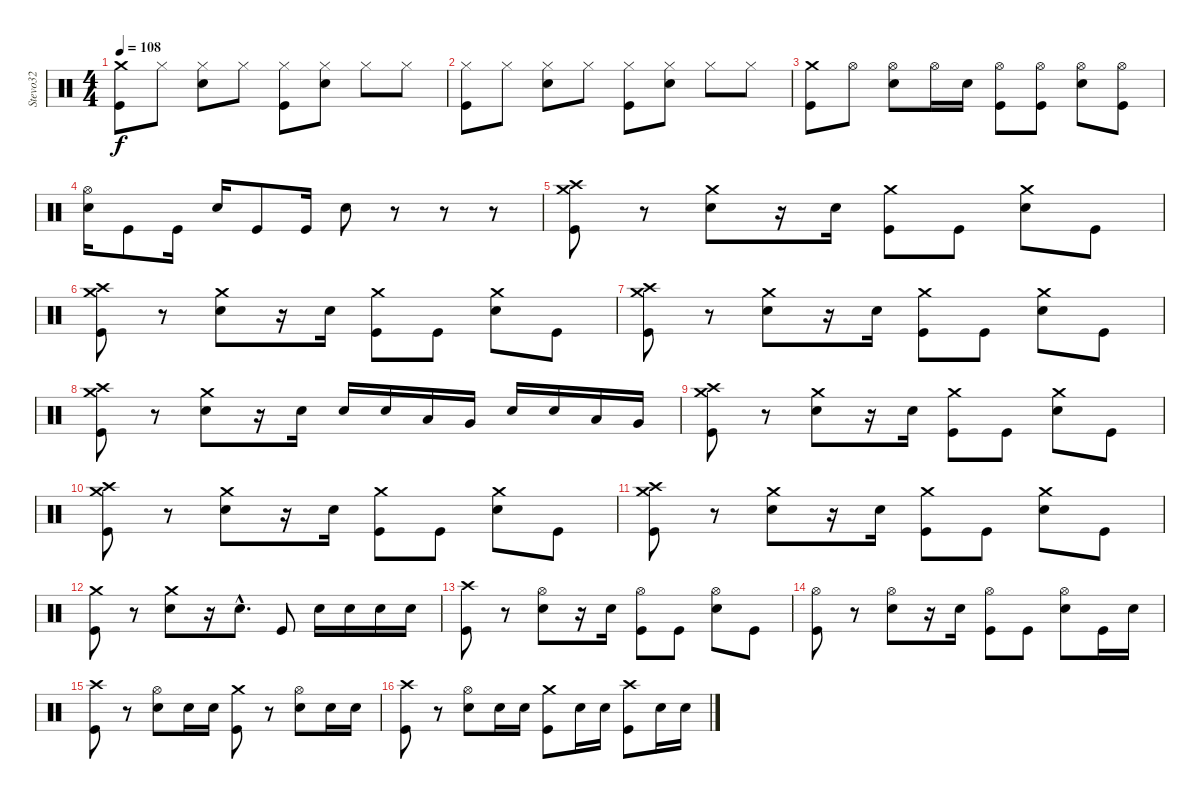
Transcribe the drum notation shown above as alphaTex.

\track ("Stevo32" "Stevo32") {instrument percussion}
\staff {score}
\articulation defaults
\ts (4 4)
\tempo 108
\clef neutral
\ks c
("Crash medium (hit)" "Kick (hit)").8{dy f} "Hi-Hat (closed)".8 ("Hi-Hat (closed)" "Electric Snare (hit)").8 "Hi-Hat (closed)".8 ("Hi-Hat (closed)" "Kick (hit)").8 ("Hi-Hat (closed)" "Electric Snare (hit)").8 "Hi-Hat (closed)".8 "Hi-Hat (closed)".8 |
("Hi-Hat (closed)" "Kick (hit)").8 "Hi-Hat (closed)".8 ("Hi-Hat (closed)" "Electric Snare (hit)").8 "Hi-Hat (closed)".8 ("Hi-Hat (closed)" "Kick (hit)").8 ("Hi-Hat (closed)" "Electric Snare (hit)").8 "Hi-Hat (closed)".8 "Hi-Hat (closed)".8 |
("Crash medium (hit)" "Kick (hit)").8 "Hi-Hat (open)".8 ("Hi-Hat (open)" "Electric Snare (hit)").8 "Hi-Hat (open)".16 "Electric Snare (hit)".16 ("Hi-Hat (open)" "Kick (hit)").8 ("Hi-Hat (open)" "Kick (hit)").8 ("Hi-Hat (open)" "Electric Snare (hit)").8 ("Hi-Hat (open)" "Kick (hit)").8 |
("Hi-Hat (open)" "Electric Snare (hit)").16 "Kick (hit)".8 "Kick (hit)".16 "Electric Snare (hit)".16 "Kick (hit)".8 "Kick (hit)".16 "Electric Snare (hit)".8 r.8 r.8 r.8 |
("Crash high (hit)" "Crash medium (hit)" "Kick (hit)").8 r.8 ("Crash medium (hit)" "Electric Snare (hit)").8 r.16 "Electric Snare (hit)".16 ("Crash medium (hit)" "Kick (hit)").8 "Kick (hit)".8 ("Crash medium (hit)" "Electric Snare (hit)").8 "Kick (hit)".8 |
("Crash high (hit)" "Crash medium (hit)" "Kick (hit)").8 r.8 ("Crash medium (hit)" "Electric Snare (hit)").8 r.16 "Electric Snare (hit)".16 ("Crash medium (hit)" "Kick (hit)").8 "Kick (hit)".8 ("Crash medium (hit)" "Electric Snare (hit)").8 "Kick (hit)".8 |
("Crash high (hit)" "Crash medium (hit)" "Kick (hit)").8 r.8 ("Crash medium (hit)" "Electric Snare (hit)").8 r.16 "Electric Snare (hit)".16 ("Crash medium (hit)" "Kick (hit)").8 "Kick (hit)".8 ("Crash medium (hit)" "Electric Snare (hit)").8 "Kick (hit)".8 |
("Crash high (hit)" "Crash medium (hit)" "Kick (hit)").8 r.8 ("Crash medium (hit)" "Electric Snare (hit)").8 r.16 "Electric Snare (hit)".16 "Electric Snare (hit)".16 "Electric Snare (hit)".16 "Low Tom (hit)".16 "Very Low Tom (hit)".16 "Electric Snare (hit)".16 "Electric Snare (hit)".16 "Low Tom (hit)".16 "Very Low Tom (hit)".16 |
("Crash high (hit)" "Crash medium (hit)" "Kick (hit)").8 r.8 ("Crash medium (hit)" "Electric Snare (hit)").8 r.16 "Electric Snare (hit)".16 ("Crash medium (hit)" "Kick (hit)").8 "Kick (hit)".8 ("Crash medium (hit)" "Electric Snare (hit)").8 "Kick (hit)".8 |
("Crash high (hit)" "Crash medium (hit)" "Kick (hit)").8 r.8 ("Crash medium (hit)" "Electric Snare (hit)").8 r.16 "Electric Snare (hit)".16 ("Crash medium (hit)" "Kick (hit)").8 "Kick (hit)".8 ("Crash medium (hit)" "Electric Snare (hit)").8 "Kick (hit)".8 |
("Crash high (hit)" "Crash medium (hit)" "Kick (hit)").8 r.8 ("Crash medium (hit)" "Electric Snare (hit)").8 r.16 "Electric Snare (hit)".16 ("Crash medium (hit)" "Kick (hit)").8 "Kick (hit)".8 ("Crash medium (hit)" "Electric Snare (hit)").8 "Kick (hit)".8 |
("Crash medium (hit)" "Kick (hit)").8 r.8 ("Crash medium (hit)" "Electric Snare (hit)").8 r.16 "Electric Snare (hit)"{hac}.8{d} "Kick (hit)".8 "Electric Snare (hit)".16 "Electric Snare (hit)".16 "Electric Snare (hit)".16 "Electric Snare (hit)".16 |
("Crash high (hit)" "Kick (hit)").8 r.8 ("Hi-Hat (open)" "Electric Snare (hit)").8 r.16 "Electric Snare (hit)".16 ("Hi-Hat (open)" "Kick (hit)").8 "Kick (hit)".8 ("Hi-Hat (open)" "Electric Snare (hit)").8 "Kick (hit)".8 |
("Hi-Hat (open)" "Kick (hit)").8 r.8 ("Hi-Hat (open)" "Electric Snare (hit)").8 r.16 "Electric Snare (hit)".16 ("Hi-Hat (open)" "Kick (hit)").8 "Kick (hit)".8 ("Hi-Hat (open)" "Electric Snare (hit)").8 "Kick (hit)".16 "Electric Snare (hit)".16 |
("Crash high (hit)" "Kick (hit)").8 r.8 ("Hi-Hat (open)" "Electric Snare (hit)").8 "Electric Snare (hit)".16 "Electric Snare (hit)".16 ("Crash medium (hit)" "Kick (hit)").8 r.8 ("Hi-Hat (open)" "Electric Snare (hit)").8 "Electric Snare (hit)".16 "Electric Snare (hit)".16 |
("Crash high (hit)" "Kick (hit)").8 r.8 ("Hi-Hat (open)" "Electric Snare (hit)").8 "Electric Snare (hit)".16 "Electric Snare (hit)".16 ("Crash medium (hit)" "Kick (hit)").8 "Electric Snare (hit)".16 "Electric Snare (hit)".16 ("Crash high (hit)" "Kick (hit)").8 "Electric Snare (hit)".16 "Electric Snare (hit)".16
